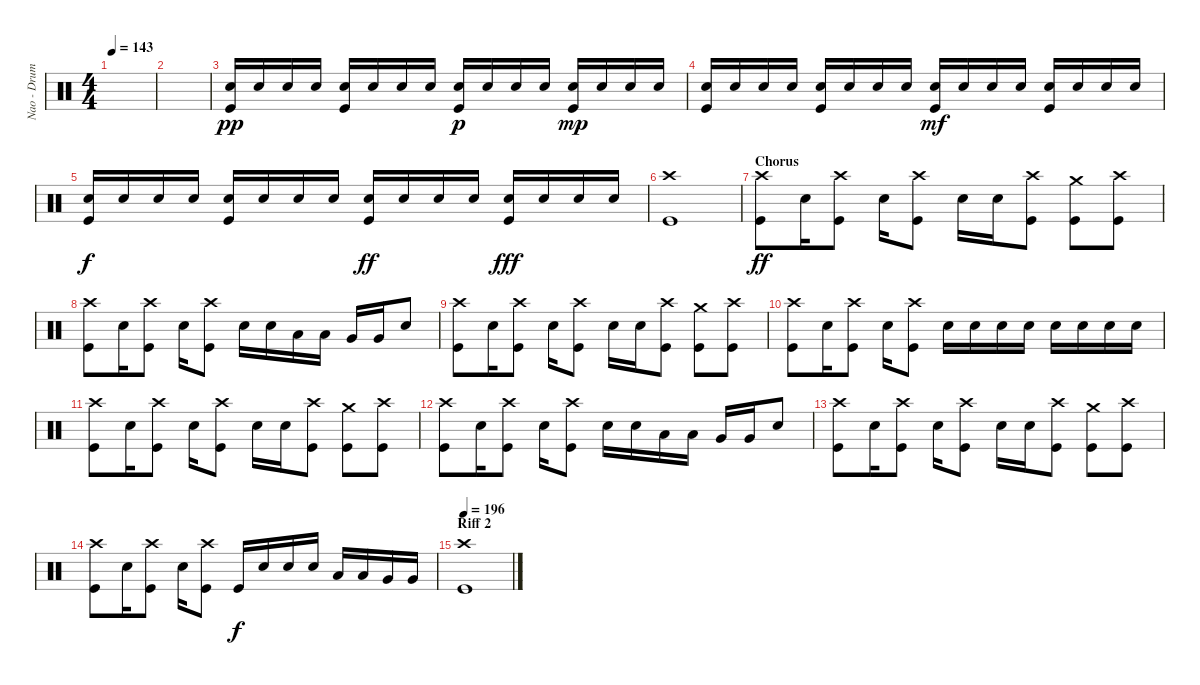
\track ("Nao - Drums" "Nao - Drum") {instrument percussion}
\staff {score}
\articulation defaults
\ts (4 4)
\tempo 143
\clef neutral
\ks c
|
|
("Kick (hit)" "Snare (hit) 2").16{dy pp} "Snare (hit) 2".16 "Snare (hit) 2".16 "Snare (hit) 2".16 ("Snare (hit) 2" "Kick (hit)").16 "Snare (hit) 2".16 "Snare (hit) 2".16 "Snare (hit) 2".16 ("Snare (hit) 2" "Kick (hit)").16{dy p} "Snare (hit) 2".16 "Snare (hit) 2".16 "Snare (hit) 2".16 ("Snare (hit) 2" "Kick (hit)").16{dy mp} "Snare (hit) 2".16 "Snare (hit) 2".16 "Snare (hit) 2".16 |
("Kick (hit)" "Snare (hit) 2").16 "Snare (hit) 2".16 "Snare (hit) 2".16 "Snare (hit) 2".16 ("Snare (hit) 2" "Kick (hit)").16 "Snare (hit) 2".16 "Snare (hit) 2".16 "Snare (hit) 2".16 ("Snare (hit) 2" "Kick (hit)").16{dy mf} "Snare (hit) 2".16 "Snare (hit) 2".16 "Snare (hit) 2".16 ("Snare (hit) 2" "Kick (hit)").16 "Snare (hit) 2".16 "Snare (hit) 2".16 "Snare (hit) 2".16 |
("Kick (hit)" "Snare (hit) 2").16{dy f} "Snare (hit) 2".16 "Snare (hit) 2".16 "Snare (hit) 2".16 ("Snare (hit) 2" "Kick (hit)").16 "Snare (hit) 2".16 "Snare (hit) 2".16 "Snare (hit) 2".16 ("Snare (hit) 2" "Kick (hit)").16{dy ff} "Snare (hit) 2".16 "Snare (hit) 2".16 "Snare (hit) 2".16 ("Snare (hit) 2" "Kick (hit)").16{dy fff} "Snare (hit) 2".16 "Snare (hit) 2".16 "Snare (hit) 2".16 |
("Crash high (hit)" "Kick (hit)").1 |
\section ("" "Chorus")
("Crash high (hit)" "Kick (hit)").8{dy ff} "Snare (hit) 2".16 ("Crash high (hit)" "Kick (hit)").8 "Snare (hit) 2".16 ("Crash high (hit)" "Kick (hit)").8 "Snare (hit) 2".16 "Snare (hit) 2".16 ("Kick (hit)" "Crash high (hit)").8 ("Crash medium (hit)" "Kick (hit)").8 ("Crash high (hit)" "Kick (hit)").8 |
("Crash high (hit)" "Kick (hit)").8 "Snare (hit) 2".16 ("Crash high (hit)" "Kick (hit)").8 "Snare (hit) 2".16 ("Crash high (hit)" "Kick (hit)").8 "Snare (hit) 2".16 "Snare (hit) 2".16 "Low Tom (hit)".16 "Low Tom (hit)".16 "Very Low Tom (hit)".16 "Very Low Tom (hit)".16 "Snare (hit) 2".8 |
("Crash high (hit)" "Kick (hit)").8 "Snare (hit) 2".16 ("Crash high (hit)" "Kick (hit)").8 "Snare (hit) 2".16 ("Crash high (hit)" "Kick (hit)").8 "Snare (hit) 2".16 "Snare (hit) 2".16 ("Kick (hit)" "Crash high (hit)").8 ("Crash medium (hit)" "Kick (hit)").8 ("Crash high (hit)" "Kick (hit)").8 |
("Crash high (hit)" "Kick (hit)").8 "Snare (hit) 2".16 ("Crash high (hit)" "Kick (hit)").8 "Snare (hit) 2".16 ("Crash high (hit)" "Kick (hit)").8 "Snare (hit) 2".16 "Snare (hit) 2".16 "Snare (hit) 2".16 "Snare (hit) 2".16 "Snare (hit) 2".16 "Snare (hit) 2".16 "Snare (hit) 2".16 "Snare (hit) 2".16 |
("Crash high (hit)" "Kick (hit)").8 "Snare (hit) 2".16 ("Crash high (hit)" "Kick (hit)").8 "Snare (hit) 2".16 ("Crash high (hit)" "Kick (hit)").8 "Snare (hit) 2".16 "Snare (hit) 2".16 ("Kick (hit)" "Crash high (hit)").8 ("Crash medium (hit)" "Kick (hit)").8 ("Crash high (hit)" "Kick (hit)").8 |
("Crash high (hit)" "Kick (hit)").8 "Snare (hit) 2".16 ("Crash high (hit)" "Kick (hit)").8 "Snare (hit) 2".16 ("Crash high (hit)" "Kick (hit)").8 "Snare (hit) 2".16 "Snare (hit) 2".16 "Low Tom (hit)".16 "Low Tom (hit)".16 "Very Low Tom (hit)".16 "Very Low Tom (hit)".16 "Snare (hit) 2".8 |
("Crash high (hit)" "Kick (hit)").8 "Snare (hit) 2".16 ("Crash high (hit)" "Kick (hit)").8 "Snare (hit) 2".16 ("Crash high (hit)" "Kick (hit)").8 "Snare (hit) 2".16 "Snare (hit) 2".16 ("Kick (hit)" "Crash high (hit)").8 ("Crash medium (hit)" "Kick (hit)").8 ("Crash high (hit)" "Kick (hit)").8 |
("Crash high (hit)" "Kick (hit)").8 "Snare (hit) 2".16 ("Crash high (hit)" "Kick (hit)").8 "Snare (hit) 2".16 ("Crash high (hit)" "Kick (hit)").8 "Kick (hit)".16{dy f} "Snare (hit) 2".16 "Snare (hit) 2".16 "Snare (hit) 2".16 "Low Tom (hit)".16 "Low Tom (hit)".16 "Very Low Tom (hit)".16 "Very Low Tom (hit)".16 |
\section ("" "Riff 2")
\tempo 196
("Crash high (hit)" "Kick (hit)").1
